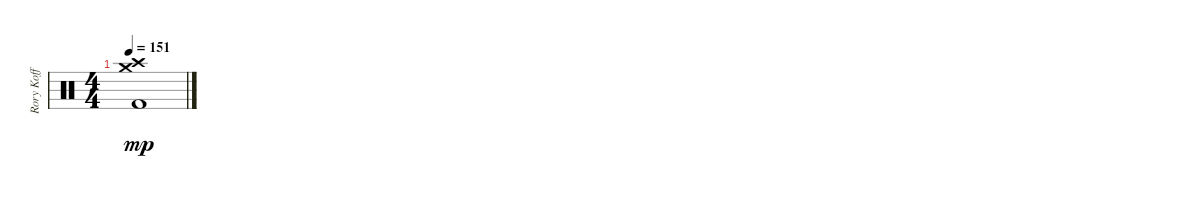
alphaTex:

\track ("Rory Koff" "Rory Koff") {instrument percussion}
\staff {score}
\articulation defaults
\ts (4 4)
\tempo 151
\clef neutral
\ks c
("Crash high (hit)" "Crash medium (hit)" "Kick (hit) 2").1{dy mp}
